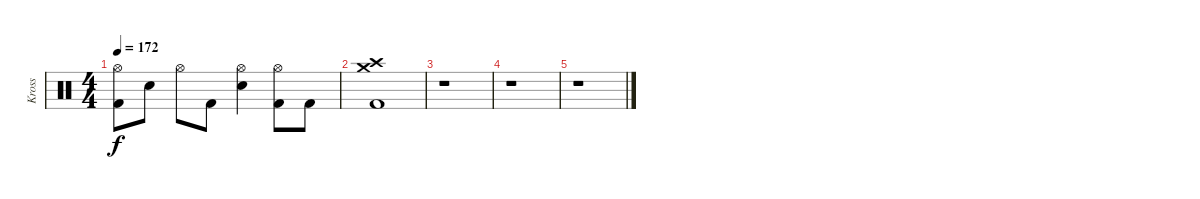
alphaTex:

\track ("Kross" "Kross") {instrument percussion}
\staff {score}
\articulation defaults
\ts (4 4)
\tempo 172
\clef neutral
\ks c
("Hi-Hat (open)" "Kick (hit) 2").8{dy f} "Electric Snare (hit)".8 "Hi-Hat (open)".8 "Kick (hit) 2".8 ("Hi-Hat (open)" "Electric Snare (hit)").4 ("Hi-Hat (open)" "Kick (hit) 2").8 "Kick (hit) 2".8 |
("Crash high (hit)" "Crash medium (hit)" "Kick (hit) 2").1 |
r.1 |
r.1 |
r.1
